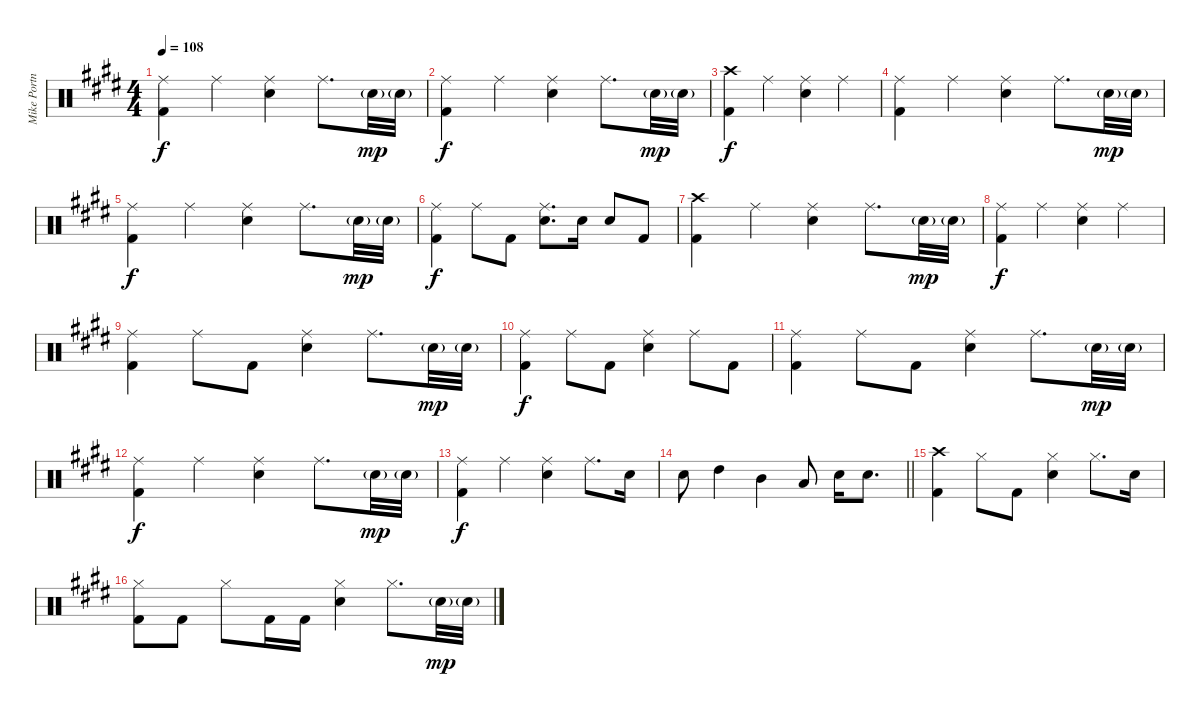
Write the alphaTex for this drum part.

\track ("Mike Portnoy" "Mike Portn") {instrument percussion}
\staff {score}
\articulation defaults
\ts (4 4)
\tempo 108
\clef neutral
\ks c#minor
("Ride (middle)" "Kick (hit) 2").4{dy f} "Ride (middle)".4 ("Ride (middle)" "Snare (hit) 2").4 "Ride (middle)".8{d} "Snare (hit) 2"{g}.32{dy mp} "Snare (hit) 2"{g}.32 |
("Ride (middle)" "Kick (hit) 2").4{dy f} "Ride (middle)".4 ("Ride (middle)" "Snare (hit) 2").4 "Ride (middle)".8{d} "Snare (hit) 2"{g}.32{dy mp} "Snare (hit) 2"{g}.32 |
("Crash high (hit)" "Kick (hit) 2").4{dy f} "Ride (middle)".4 ("Ride (middle)" "Snare (hit) 2").4 "Ride (middle)".4 |
("Ride (middle)" "Kick (hit) 2").4 "Ride (middle)".4 ("Ride (middle)" "Snare (hit) 2").4 "Ride (middle)".8{d} "Snare (hit) 2"{g}.32{dy mp} "Snare (hit) 2"{g}.32 |
("Ride (middle)" "Kick (hit) 2").4{dy f} "Ride (middle)".4 ("Ride (middle)" "Snare (hit) 2").4 "Ride (middle)".8{d} "Snare (hit) 2"{g}.32{dy mp} "Snare (hit) 2"{g}.32 |
("Ride (middle)" "Kick (hit) 2").4{dy f} "Ride (middle)".8 "Kick (hit) 2".8 ("Ride (middle)" "Snare (hit) 2").8{d} "Snare (hit) 2".16 "Snare (hit) 2".8 "Kick (hit) 2".8 |
("Crash high (hit)" "Kick (hit) 2").4 "Ride (middle)".4 ("Ride (middle)" "Snare (hit) 2").4 "Ride (middle)".8{d} "Snare (hit) 2"{g}.32{dy mp} "Snare (hit) 2"{g}.32 |
("Ride (middle)" "Kick (hit) 2").4{dy f} "Ride (middle)".4 ("Ride (middle)" "Snare (hit) 2").4 "Ride (middle)".4 |
("Ride (middle)" "Kick (hit) 2").4 "Ride (middle)".8 "Kick (hit) 2".8 ("Ride (middle)" "Snare (hit) 2").4 "Ride (middle)".8{d} "Snare (hit) 2"{g}.32{dy mp} "Snare (hit) 2"{g}.32 |
("Ride (middle)" "Kick (hit) 2").4{dy f} "Ride (middle)".8 "Kick (hit) 2".8 ("Ride (middle)" "Snare (hit) 2").4 "Ride (middle)".8 "Kick (hit) 2".8 |
("Ride (middle)" "Kick (hit) 2").4 "Ride (middle)".8 "Kick (hit) 2".8 ("Ride (middle)" "Snare (hit) 2").4 "Ride (middle)".8{d} "Snare (hit) 2"{g}.32{dy mp} "Snare (hit) 2"{g}.32 |
("Ride (middle)" "Kick (hit) 2").4{dy f} "Ride (middle)".4 ("Ride (middle)" "Snare (hit) 2").4 "Ride (middle)".8{d} "Snare (hit) 2"{g}.32{dy mp} "Snare (hit) 2"{g}.32 |
("Ride (middle)" "Kick (hit) 2").4{dy f} "Ride (middle)".4 ("Ride (middle)" "Snare (hit) 2").4 "Ride (middle)".8{d} "Snare (hit) 2".16 |
\barLineRight lightlight "Snare (hit) 2".8 "High Tom (hit)".4 "Mid Tom (hit)".4 "Low Tom (hit)".8 "Snare (hit) 2".16 "Snare (hit) 2".8{d}
|
("Crash high (hit)" "Kick (hit) 2").4 "Hi-Hat (closed)".8 "Kick (hit) 2".8 ("Hi-Hat (closed)" "Snare (hit) 2").4 "Hi-Hat (closed)".8{d} "Snare (hit) 2".16 |
("Hi-Hat (closed)" "Kick (hit) 2").8 "Kick (hit) 2".8 "Hi-Hat (closed)".8 "Kick (hit) 2".16 "Kick (hit) 2".16 ("Hi-Hat (closed)" "Snare (hit) 2").4 "Hi-Hat (closed)".8{d} "Snare (hit) 2"{g}.32{dy mp} "Snare (hit) 2"{g}.32
